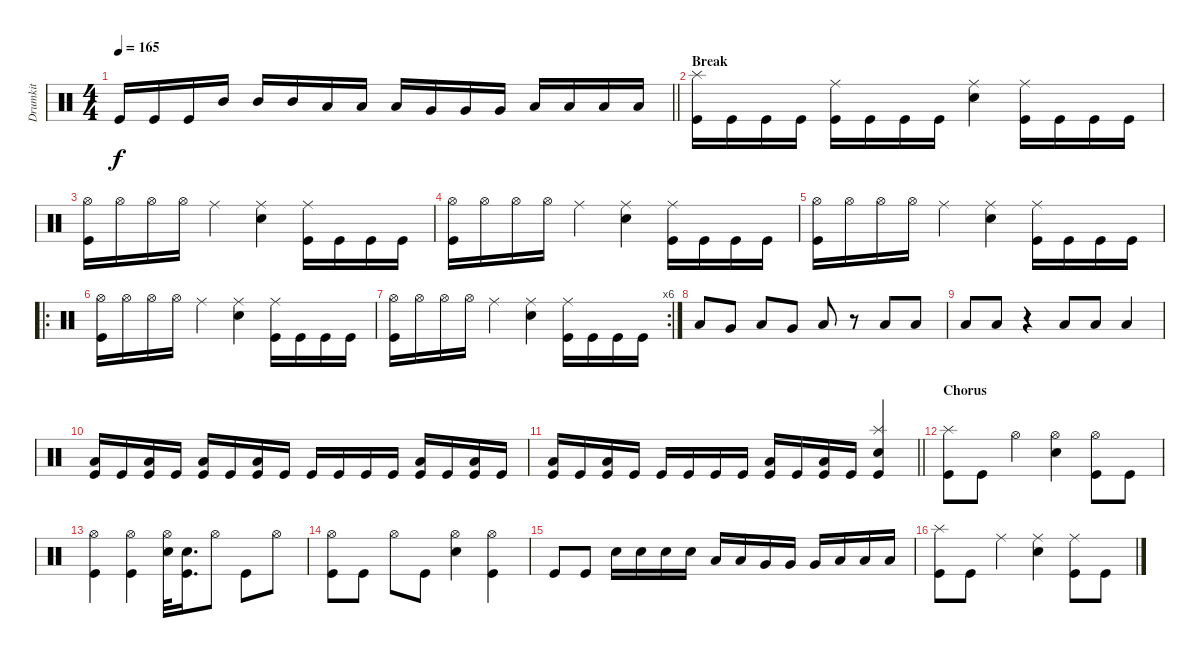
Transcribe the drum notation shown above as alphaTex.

\track ("Drumkit" "Drumkit") {instrument percussion}
\staff {score}
\articulation defaults
\ts (4 4)
\tempo 165
\clef neutral
\barLineRight lightlight
\ks c "Kick (hit)".16{dy f} "Kick (hit)".16 "Kick (hit)".16 "Mid Tom (hit)".16 "Mid Tom (hit)".16 "Mid Tom (hit)".16 "Low Tom (hit)".16 "Low Tom (hit)".16 "Low Tom (hit)".16 "Very Low Tom (hit)".16 "Very Low Tom (hit)".16 "Very Low Tom (hit)".16 "Low Floor Tom (hit)".16 "Low Floor Tom (hit)".16 "Low Floor Tom (hit)".16 "Low Floor Tom (hit)".16
|
\section ("" "Break")
("Splash (hit)" "Kick (hit)").16 "Kick (hit)".16 "Kick (hit)".16 "Kick (hit)".16 ("Ride (middle)" "Kick (hit)").16 "Kick (hit)".16 "Kick (hit)".16 "Kick (hit)".16 ("Ride (middle)" "Snare (hit) 2").4 ("Ride (middle)" "Kick (hit)").16 "Kick (hit)".16 "Kick (hit)".16 "Kick (hit)".16 |
("Hi-Hat (open)" "Kick (hit)").16 "Hi-Hat (open)".16 "Hi-Hat (open)".16 "Hi-Hat (open)".16 "Ride (middle)".4 ("Ride (middle)" "Snare (hit) 2").4 ("Ride (middle)" "Kick (hit)").16 "Kick (hit)".16 "Kick (hit)".16 "Kick (hit)".16 |
("Hi-Hat (open)" "Kick (hit)").16 "Hi-Hat (open)".16 "Hi-Hat (open)".16 "Hi-Hat (open)".16 "Ride (middle)".4 ("Ride (middle)" "Snare (hit) 2").4 ("Ride (middle)" "Kick (hit)").16 "Kick (hit)".16 "Kick (hit)".16 "Kick (hit)".16 |
("Hi-Hat (open)" "Kick (hit)").16 "Hi-Hat (open)".16 "Hi-Hat (open)".16 "Hi-Hat (open)".16 "Ride (middle)".4 ("Ride (middle)" "Snare (hit) 2").4 ("Ride (middle)" "Kick (hit)").16 "Kick (hit)".16 "Kick (hit)".16 "Kick (hit)".16 |
\ro
("Hi-Hat (open)" "Kick (hit)").16 "Hi-Hat (open)".16 "Hi-Hat (open)".16 "Hi-Hat (open)".16 "Ride (middle)".4 ("Ride (middle)" "Snare (hit) 2").4 ("Ride (middle)" "Kick (hit)").16 "Kick (hit)".16 "Kick (hit)".16 "Kick (hit)".16 |
\rc 6
("Hi-Hat (open)" "Kick (hit)").16 "Hi-Hat (open)".16 "Hi-Hat (open)".16 "Hi-Hat (open)".16 "Ride (middle)".4 ("Ride (middle)" "Snare (hit) 2").4 ("Ride (middle)" "Kick (hit)").16 "Kick (hit)".16 "Kick (hit)".16 "Kick (hit)".16 |
"Low Floor Tom (hit)".8 "Very Low Tom (hit)".8 "Low Floor Tom (hit)".8 "Very Low Tom (hit)".8 "Low Floor Tom (hit)".8 r.8 "Low Floor Tom (hit)".8 "Low Floor Tom (hit)".8 |
"Low Floor Tom (hit)".8 "Low Floor Tom (hit)".8 r.4 "Low Floor Tom (hit)".8 "Low Floor Tom (hit)".8 "Low Floor Tom (hit)".4 |
("Low Floor Tom (hit)" "Kick (hit)").16 "Kick (hit)".16 ("Low Floor Tom (hit)" "Kick (hit)").16 "Kick (hit)".16 ("Low Floor Tom (hit)" "Kick (hit)").16 "Kick (hit)".16 ("Low Floor Tom (hit)" "Kick (hit)").16 "Kick (hit)".16 "Kick (hit)".16 "Kick (hit)".16 "Kick (hit)".16 "Kick (hit)".16 ("Low Floor Tom (hit)" "Kick (hit)").16 "Kick (hit)".16 ("Low Floor Tom (hit)" "Kick (hit)").16 "Kick (hit)".16 |
\barLineRight lightlight
("Low Floor Tom (hit)" "Kick (hit)").16 "Kick (hit)".16 ("Low Floor Tom (hit)" "Kick (hit)").16 "Kick (hit)".16 "Kick (hit)".16 "Kick (hit)".16 "Kick (hit)".16 "Kick (hit)".16 ("Low Floor Tom (hit)" "Kick (hit)").16 "Kick (hit)".16 ("Low Floor Tom (hit)" "Kick (hit)").16 "Kick (hit)".16 ("Splash (hit)" "Snare (hit) 2" "Kick (hit)").4 |
\section ("" "Chorus")
("Splash (hit)" "Kick (hit)").8 "Kick (hit)".8 "Hi-Hat (open)".4 ("Hi-Hat (open)" "Snare (hit) 2").4 ("Hi-Hat (open)" "Kick (hit)").8 "Kick (hit)".8 |
("Hi-Hat (open)" "Kick (hit)").4 ("Hi-Hat (open)" "Kick (hit)").4 ("Hi-Hat (open)" "Snare (hit) 2").32 ("Snare (hit) 2" "Kick (hit)").16{d} "Hi-Hat (open)".8 "Kick (hit)".8 "Hi-Hat (open)".8 |
("Hi-Hat (open)" "Kick (hit)").8 "Kick (hit)".8 "Hi-Hat (open)".8 "Kick (hit)".8 ("Hi-Hat (open)" "Snare (hit) 2").4 ("Hi-Hat (open)" "Kick (hit)").4 |
"Kick (hit)".8 "Kick (hit)".8 "Snare (hit) 2".16 "Snare (hit) 2".16 "Snare (hit) 2".16 "Snare (hit) 2".16 "Low Tom (hit)".16 "Low Tom (hit)".16 "Very Low Tom (hit)".16 "Very Low Tom (hit)".16 "Very Low Tom (hit)".16 "Low Floor Tom (hit)".16 "Low Floor Tom (hit)".16 "Low Floor Tom (hit)".16 |
("Splash (hit)" "Kick (hit)").8 "Kick (hit)".8 "Ride (middle)".4 ("Ride (middle)" "Snare (hit) 2").4 ("Ride (middle)" "Kick (hit)").8 "Kick (hit)".8
